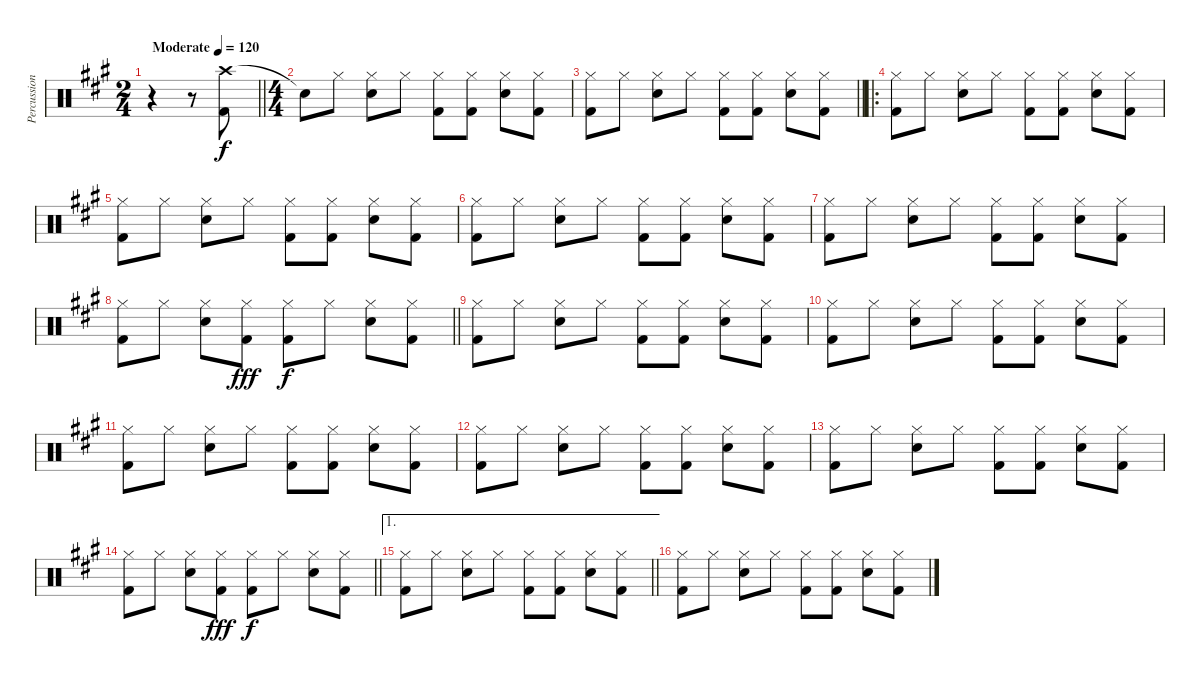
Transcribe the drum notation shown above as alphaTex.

\track ("Percussion" "Percussion") {instrument percussion}
\staff {score}
\articulation defaults
\ts (2 4)
\tempo (120 "Moderate")
\clef neutral
\barLineRight lightlight
\ks a
r.4{dy f} r.8 ("Crash high (hit)" "Kick (hit) 2").8 |
\ts (4 4)
"Snare (hit)"{t}.8 "Hi-Hat (closed)".8 ("Hi-Hat (closed)" "Snare (hit) 2").8 "Hi-Hat (closed)".8 ("Hi-Hat (closed)" "Kick (hit) 2").8 ("Hi-Hat (closed)" "Kick (hit) 2").8 ("Hi-Hat (closed)" "Snare (hit) 2").8 ("Hi-Hat (closed)" "Kick (hit) 2").8 |
\barLineRight lightlight
("Hi-Hat (closed)" "Kick (hit) 2").8 "Hi-Hat (closed)".8 ("Hi-Hat (closed)" "Snare (hit) 2").8 "Hi-Hat (closed)".8 ("Hi-Hat (closed)" "Kick (hit) 2").8 ("Hi-Hat (closed)" "Kick (hit) 2").8 ("Hi-Hat (closed)" "Snare (hit) 2").8 ("Hi-Hat (closed)" "Kick (hit) 2").8 |
\ro
("Hi-Hat (closed)" "Kick (hit) 2").8 "Hi-Hat (closed)".8 ("Hi-Hat (closed)" "Snare (hit) 2").8 "Hi-Hat (closed)".8 ("Hi-Hat (closed)" "Kick (hit) 2").8 ("Hi-Hat (closed)" "Kick (hit) 2").8 ("Hi-Hat (closed)" "Snare (hit) 2").8 ("Hi-Hat (closed)" "Kick (hit) 2").8 |
("Hi-Hat (closed)" "Kick (hit) 2").8 "Hi-Hat (closed)".8 ("Hi-Hat (closed)" "Snare (hit) 2").8 "Hi-Hat (closed)".8 ("Hi-Hat (closed)" "Kick (hit) 2").8 ("Hi-Hat (closed)" "Kick (hit) 2").8 ("Hi-Hat (closed)" "Snare (hit) 2").8 ("Hi-Hat (closed)" "Kick (hit) 2").8 |
("Hi-Hat (closed)" "Kick (hit) 2").8 "Hi-Hat (closed)".8 ("Hi-Hat (closed)" "Snare (hit) 2").8 "Hi-Hat (closed)".8 ("Hi-Hat (closed)" "Kick (hit) 2").8 ("Hi-Hat (closed)" "Kick (hit) 2").8 ("Hi-Hat (closed)" "Snare (hit) 2").8 ("Hi-Hat (closed)" "Kick (hit) 2").8 |
("Hi-Hat (closed)" "Kick (hit) 2").8 "Hi-Hat (closed)".8 ("Hi-Hat (closed)" "Snare (hit) 2").8 "Hi-Hat (closed)".8 ("Hi-Hat (closed)" "Kick (hit) 2").8 ("Hi-Hat (closed)" "Kick (hit) 2").8 ("Hi-Hat (closed)" "Snare (hit) 2").8 ("Hi-Hat (closed)" "Kick (hit) 2").8 |
\barLineRight lightlight
("Hi-Hat (closed)" "Kick (hit) 2").8 "Hi-Hat (closed)".8 ("Hi-Hat (closed)" "Snare (hit) 2").8 ("Hi-Hat (closed)" "Kick (hit) 2").8{dy fff} ("Hi-Hat (closed)" "Kick (hit) 2").8{dy f} "Hi-Hat (closed)".8 ("Hi-Hat (closed)" "Snare (hit) 2").8 ("Hi-Hat (closed)" "Kick (hit) 2").8 |
("Hi-Hat (closed)" "Kick (hit) 2").8 "Hi-Hat (closed)".8 ("Hi-Hat (closed)" "Snare (hit) 2").8 "Hi-Hat (closed)".8 ("Hi-Hat (closed)" "Kick (hit) 2").8 ("Hi-Hat (closed)" "Kick (hit) 2").8 ("Hi-Hat (closed)" "Snare (hit) 2").8 ("Hi-Hat (closed)" "Kick (hit) 2").8 |
("Hi-Hat (closed)" "Kick (hit) 2").8 "Hi-Hat (closed)".8 ("Hi-Hat (closed)" "Snare (hit) 2").8 "Hi-Hat (closed)".8 ("Hi-Hat (closed)" "Kick (hit) 2").8 ("Hi-Hat (closed)" "Kick (hit) 2").8 ("Hi-Hat (closed)" "Snare (hit) 2").8 ("Hi-Hat (closed)" "Kick (hit) 2").8 |
("Hi-Hat (closed)" "Kick (hit) 2").8 "Hi-Hat (closed)".8 ("Hi-Hat (closed)" "Snare (hit) 2").8 "Hi-Hat (closed)".8 ("Hi-Hat (closed)" "Kick (hit) 2").8 ("Hi-Hat (closed)" "Kick (hit) 2").8 ("Hi-Hat (closed)" "Snare (hit) 2").8 ("Hi-Hat (closed)" "Kick (hit) 2").8 |
("Hi-Hat (closed)" "Kick (hit) 2").8 "Hi-Hat (closed)".8 ("Hi-Hat (closed)" "Snare (hit) 2").8 "Hi-Hat (closed)".8 ("Hi-Hat (closed)" "Kick (hit) 2").8 ("Hi-Hat (closed)" "Kick (hit) 2").8 ("Hi-Hat (closed)" "Snare (hit) 2").8 ("Hi-Hat (closed)" "Kick (hit) 2").8 |
("Hi-Hat (closed)" "Kick (hit) 2").8 "Hi-Hat (closed)".8 ("Hi-Hat (closed)" "Snare (hit) 2").8 "Hi-Hat (closed)".8 ("Hi-Hat (closed)" "Kick (hit) 2").8 ("Hi-Hat (closed)" "Kick (hit) 2").8 ("Hi-Hat (closed)" "Snare (hit) 2").8 ("Hi-Hat (closed)" "Kick (hit) 2").8 |
\barLineRight lightlight
("Hi-Hat (closed)" "Kick (hit) 2").8 "Hi-Hat (closed)".8 ("Hi-Hat (closed)" "Snare (hit) 2").8 ("Hi-Hat (closed)" "Kick (hit) 2").8{dy fff} ("Hi-Hat (closed)" "Kick (hit) 2").8{dy f} "Hi-Hat (closed)".8 ("Hi-Hat (closed)" "Snare (hit) 2").8 ("Hi-Hat (closed)" "Kick (hit) 2").8 |
\ae 1
\barLineRight lightlight
("Hi-Hat (closed)" "Kick (hit) 2").8 "Hi-Hat (closed)".8 ("Hi-Hat (closed)" "Snare (hit) 2").8 "Hi-Hat (closed)".8 ("Hi-Hat (closed)" "Kick (hit) 2").8 ("Hi-Hat (closed)" "Kick (hit) 2").8 ("Hi-Hat (closed)" "Snare (hit) 2").8 ("Hi-Hat (closed)" "Kick (hit) 2").8 |
("Hi-Hat (closed)" "Kick (hit) 2").8 "Hi-Hat (closed)".8 ("Hi-Hat (closed)" "Snare (hit) 2").8 "Hi-Hat (closed)".8 ("Hi-Hat (closed)" "Kick (hit) 2").8 ("Hi-Hat (closed)" "Kick (hit) 2").8 ("Hi-Hat (closed)" "Snare (hit) 2").8 ("Hi-Hat (closed)" "Kick (hit) 2").8
